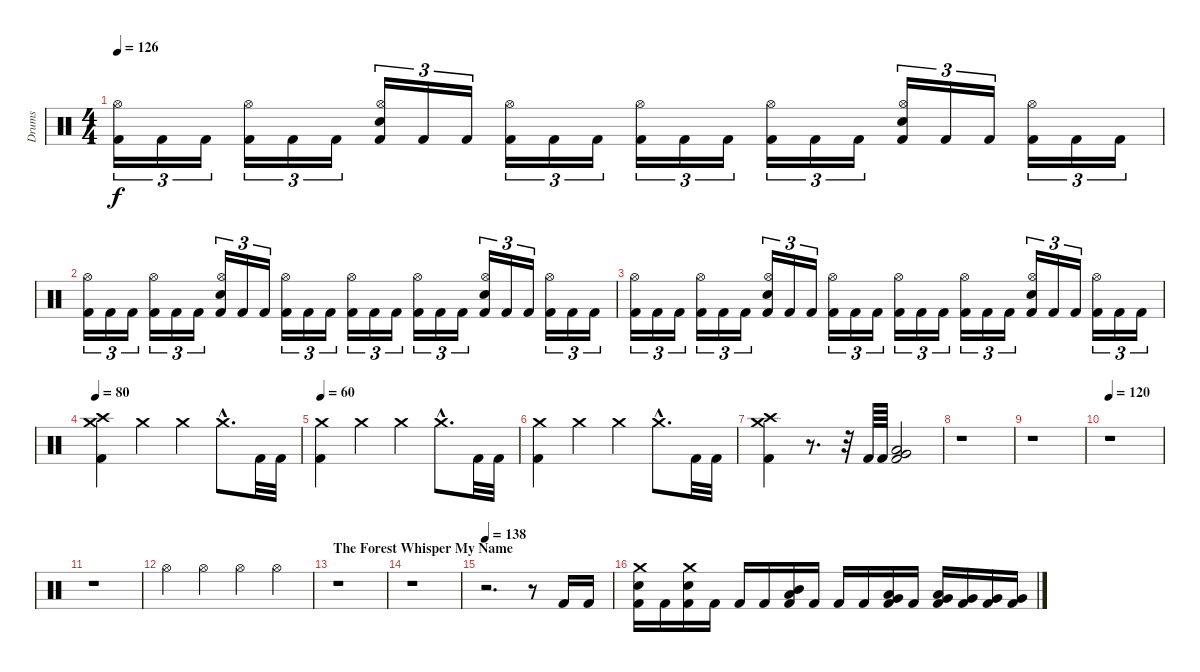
\track ("Drums" "Drums") {instrument percussion}
\staff {score}
\articulation defaults
\ts (4 4)
\tempo 126
\clef neutral
\ks c
("Kick (hit) 2" "Hi-Hat (open)").16{tu (3 2) dy f} "Kick (hit) 2".16{tu (3 2)} "Kick (hit) 2".16{tu (3 2)} ("Kick (hit) 2" "Hi-Hat (open)").16{tu (3 2)} "Kick (hit) 2".16{tu (3 2)} "Kick (hit) 2".16{tu (3 2)} ("Kick (hit) 2" "Electric Snare (hit)" "Hi-Hat (open)").16{tu (3 2)} "Kick (hit) 2".16{tu (3 2)} "Kick (hit) 2".16{tu (3 2)} ("Kick (hit) 2" "Hi-Hat (open)").16{tu (3 2)} "Kick (hit) 2".16{tu (3 2)} "Kick (hit) 2".16{tu (3 2)} ("Kick (hit) 2" "Hi-Hat (open)").16{tu (3 2)} "Kick (hit) 2".16{tu (3 2)} "Kick (hit) 2".16{tu (3 2)} ("Kick (hit) 2" "Hi-Hat (open)").16{tu (3 2)} "Kick (hit) 2".16{tu (3 2)} "Kick (hit) 2".16{tu (3 2)} ("Kick (hit) 2" "Electric Snare (hit)" "Hi-Hat (open)").16{tu (3 2)} "Kick (hit) 2".16{tu (3 2)} "Kick (hit) 2".16{tu (3 2)} ("Kick (hit) 2" "Hi-Hat (open)").16{tu (3 2)} "Kick (hit) 2".16{tu (3 2)} "Kick (hit) 2".16{tu (3 2)} |
("Kick (hit) 2" "Hi-Hat (open)").16{tu (3 2)} "Kick (hit) 2".16{tu (3 2)} "Kick (hit) 2".16{tu (3 2)} ("Kick (hit) 2" "Hi-Hat (open)").16{tu (3 2)} "Kick (hit) 2".16{tu (3 2)} "Kick (hit) 2".16{tu (3 2)} ("Kick (hit) 2" "Electric Snare (hit)" "Hi-Hat (open)").16{tu (3 2)} "Kick (hit) 2".16{tu (3 2)} "Kick (hit) 2".16{tu (3 2)} ("Kick (hit) 2" "Hi-Hat (open)").16{tu (3 2)} "Kick (hit) 2".16{tu (3 2)} "Kick (hit) 2".16{tu (3 2)} ("Kick (hit) 2" "Hi-Hat (open)").16{tu (3 2)} "Kick (hit) 2".16{tu (3 2)} "Kick (hit) 2".16{tu (3 2)} ("Kick (hit) 2" "Hi-Hat (open)").16{tu (3 2)} "Kick (hit) 2".16{tu (3 2)} "Kick (hit) 2".16{tu (3 2)} ("Kick (hit) 2" "Electric Snare (hit)" "Hi-Hat (open)").16{tu (3 2)} "Kick (hit) 2".16{tu (3 2)} "Kick (hit) 2".16{tu (3 2)} ("Kick (hit) 2" "Hi-Hat (open)").16{tu (3 2)} "Kick (hit) 2".16{tu (3 2)} "Kick (hit) 2".16{tu (3 2)} |
("Kick (hit) 2" "Hi-Hat (open)").16{tu (3 2)} "Kick (hit) 2".16{tu (3 2)} "Kick (hit) 2".16{tu (3 2)} ("Kick (hit) 2" "Hi-Hat (open)").16{tu (3 2)} "Kick (hit) 2".16{tu (3 2)} "Kick (hit) 2".16{tu (3 2)} ("Kick (hit) 2" "Electric Snare (hit)" "Hi-Hat (open)").16{tu (3 2)} "Kick (hit) 2".16{tu (3 2)} "Kick (hit) 2".16{tu (3 2)} ("Kick (hit) 2" "Hi-Hat (open)").16{tu (3 2)} "Kick (hit) 2".16{tu (3 2)} "Kick (hit) 2".16{tu (3 2)} ("Kick (hit) 2" "Hi-Hat (open)").16{tu (3 2)} "Kick (hit) 2".16{tu (3 2)} "Kick (hit) 2".16{tu (3 2)} ("Kick (hit) 2" "Hi-Hat (open)").16{tu (3 2)} "Kick (hit) 2".16{tu (3 2)} "Kick (hit) 2".16{tu (3 2)} ("Kick (hit) 2" "Electric Snare (hit)" "Hi-Hat (open)").16{tu (3 2)} "Kick (hit) 2".16{tu (3 2)} "Kick (hit) 2".16{tu (3 2)} ("Kick (hit) 2" "Hi-Hat (open)").16{tu (3 2)} "Kick (hit) 2".16{tu (3 2)} "Kick (hit) 2".16{tu (3 2)} |
\tempo 80
("Kick (hit) 2" "Crash medium (hit)" "Crash high (hit)").4 "Crash medium (hit)".4 "Crash medium (hit)".4 "Crash medium (hit)"{hac}.8{d} "Kick (hit) 2".32 "Kick (hit) 2".32 |
\tempo 60
("Kick (hit) 2" "Crash medium (hit)").4 "Crash medium (hit)".4 "Crash medium (hit)".4 "Crash medium (hit)"{hac}.8{d} "Kick (hit) 2".32 "Kick (hit) 2".32 |
("Kick (hit) 2" "Crash medium (hit)").4 "Crash medium (hit)".4 "Crash medium (hit)".4 "Crash medium (hit)"{hac}.8{d} "Kick (hit) 2".32 "Kick (hit) 2".32 |
("Kick (hit) 2" "Crash medium (hit)" "Crash high (hit)").4 r.8{d} r.32 "Kick (hit) 2".64 "Kick (hit) 2".64 ("Kick (hit) 2" "Very Low Tom (hit)" "Low Tom (hit)").2 |
r.1 |
r.1 |
\tempo 120
r.1 |
r.1 |
"Hi-Hat (open)".4 "Hi-Hat (open)".4 "Hi-Hat (open)".4 "Hi-Hat (open)".4 |
\section ("" "The Forest Whisper My Name")
r.1 |
r.1 |
\tempo 138
r.2{d} r.8 "Kick (hit) 2".16 "Kick (hit) 2".16 |
("Kick (hit) 2" "Electric Snare (hit)" "Crash medium (hit)").16 "Kick (hit) 2".16 ("Kick (hit) 2" "Electric Snare (hit)" "Crash medium (hit)").16 "Kick (hit) 2".16 "Kick (hit) 2".16 "Kick (hit) 2".16 ("Kick (hit) 2" "Mid Tom (hit)" "Low Tom (hit)").16 "Kick (hit) 2".16 "Kick (hit) 2".16 "Kick (hit) 2".16 ("Kick (hit) 2" "Low Tom (hit)" "Very Low Tom (hit)").16 "Kick (hit) 2".16 ("Kick (hit) 2" "Low Tom (hit)" "Very Low Tom (hit)").16 ("Kick (hit) 2" "Very Low Tom (hit)").16 ("Kick (hit) 2" "Very Low Tom (hit)").16 ("Kick (hit) 2" "Very Low Tom (hit)").16
